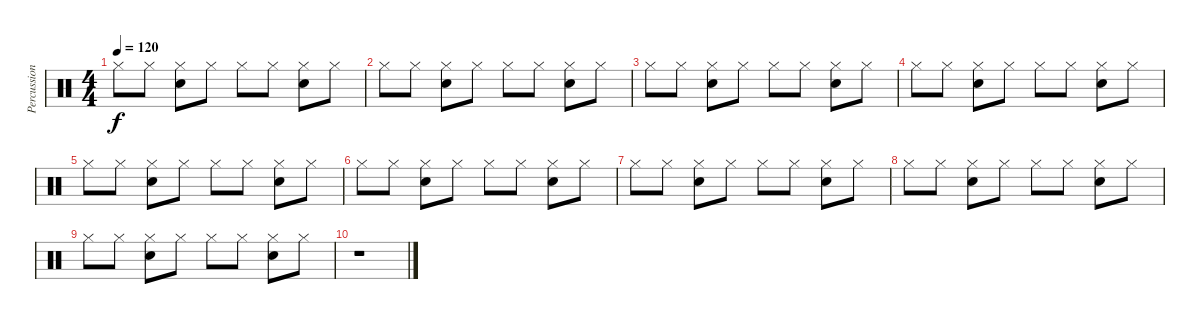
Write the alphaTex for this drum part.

\track ("Percussion      " "Percussion") {instrument percussion}
\staff {score}
\articulation defaults
\ts (4 4)
\tempo 120
\clef neutral
\ks c "Hi-Hat (closed)".8{dy f} "Hi-Hat (closed)".8
("Hi-Hat (closed)" "Snare (hit) 2").8 "Hi-Hat (closed)".8 "Hi-Hat (closed)".8 "Hi-Hat (closed)".8 ("Hi-Hat (closed)" "Snare (hit) 2").8 "Hi-Hat (closed)".8 |
"Hi-Hat (closed)".8 "Hi-Hat (closed)".8 ("Hi-Hat (closed)" "Snare (hit) 2").8 "Hi-Hat (closed)".8 "Hi-Hat (closed)".8 "Hi-Hat (closed)".8 ("Hi-Hat (closed)" "Snare (hit) 2").8 "Hi-Hat (closed)".8 |
"Hi-Hat (closed)".8 "Hi-Hat (closed)".8 ("Hi-Hat (closed)" "Snare (hit) 2").8 "Hi-Hat (closed)".8 "Hi-Hat (closed)".8 "Hi-Hat (closed)".8 ("Hi-Hat (closed)" "Snare (hit) 2").8 "Hi-Hat (closed)".8 |
"Hi-Hat (closed)".8 "Hi-Hat (closed)".8 ("Hi-Hat (closed)" "Snare (hit) 2").8 "Hi-Hat (closed)".8 "Hi-Hat (closed)".8 "Hi-Hat (closed)".8 ("Hi-Hat (closed)" "Snare (hit) 2").8 "Hi-Hat (closed)".8 |
"Hi-Hat (closed)".8 "Hi-Hat (closed)".8 ("Hi-Hat (closed)" "Snare (hit) 2").8 "Hi-Hat (closed)".8 "Hi-Hat (closed)".8 "Hi-Hat (closed)".8 ("Hi-Hat (closed)" "Snare (hit) 2").8 "Hi-Hat (closed)".8 |
"Hi-Hat (closed)".8 "Hi-Hat (closed)".8 ("Hi-Hat (closed)" "Snare (hit) 2").8 "Hi-Hat (closed)".8 "Hi-Hat (closed)".8 "Hi-Hat (closed)".8 ("Hi-Hat (closed)" "Snare (hit) 2").8 "Hi-Hat (closed)".8 |
"Hi-Hat (closed)".8 "Hi-Hat (closed)".8 ("Hi-Hat (closed)" "Snare (hit) 2").8 "Hi-Hat (closed)".8 "Hi-Hat (closed)".8 "Hi-Hat (closed)".8 ("Hi-Hat (closed)" "Snare (hit) 2").8 "Hi-Hat (closed)".8 |
"Hi-Hat (closed)".8 "Hi-Hat (closed)".8 ("Hi-Hat (closed)" "Snare (hit) 2").8 "Hi-Hat (closed)".8 "Hi-Hat (closed)".8 "Hi-Hat (closed)".8 ("Hi-Hat (closed)" "Snare (hit) 2").8 "Hi-Hat (closed)".8 |
"Hi-Hat (closed)".8 "Hi-Hat (closed)".8 ("Hi-Hat (closed)" "Snare (hit) 2").8 "Hi-Hat (closed)".8 "Hi-Hat (closed)".8 "Hi-Hat (closed)".8 ("Hi-Hat (closed)" "Snare (hit) 2").8 "Hi-Hat (closed)".8 |
r.1
